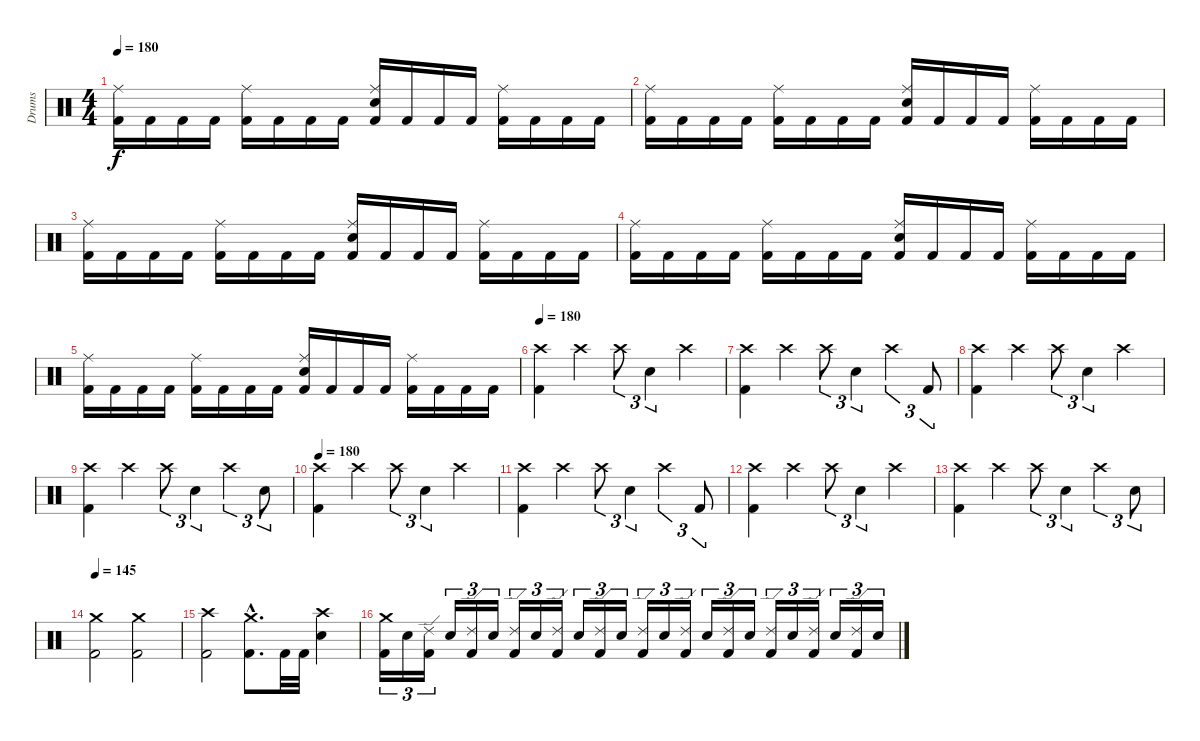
\track ("Drums" "Drums") {instrument percussion}
\staff {score}
\articulation defaults
\ts (4 4)
\tempo 180
\clef neutral
\ks c
("Kick (hit) 2" "Ride (middle)").16{dy f} "Kick (hit) 2".16 "Kick (hit) 2".16 "Kick (hit) 2".16 ("Kick (hit) 2" "Ride (middle)").16 "Kick (hit) 2".16 "Kick (hit) 2".16 "Kick (hit) 2".16 ("Kick (hit) 2" "Electric Snare (hit)" "Ride (middle)").16 "Kick (hit) 2".16 "Kick (hit) 2".16 "Kick (hit) 2".16 ("Kick (hit) 2" "Ride (middle)").16 "Kick (hit) 2".16 "Kick (hit) 2".16 "Kick (hit) 2".16 |
("Kick (hit) 2" "Ride (middle)").16 "Kick (hit) 2".16 "Kick (hit) 2".16 "Kick (hit) 2".16 ("Kick (hit) 2" "Ride (middle)").16 "Kick (hit) 2".16 "Kick (hit) 2".16 "Kick (hit) 2".16 ("Kick (hit) 2" "Electric Snare (hit)" "Ride (middle)").16 "Kick (hit) 2".16 "Kick (hit) 2".16 "Kick (hit) 2".16 ("Kick (hit) 2" "Ride (middle)").16 "Kick (hit) 2".16 "Kick (hit) 2".16 "Kick (hit) 2".16 |
("Kick (hit) 2" "Ride (middle)").16 "Kick (hit) 2".16 "Kick (hit) 2".16 "Kick (hit) 2".16 ("Kick (hit) 2" "Ride (middle)").16 "Kick (hit) 2".16 "Kick (hit) 2".16 "Kick (hit) 2".16 ("Kick (hit) 2" "Electric Snare (hit)" "Ride (middle)").16 "Kick (hit) 2".16 "Kick (hit) 2".16 "Kick (hit) 2".16 ("Kick (hit) 2" "Ride (middle)").16 "Kick (hit) 2".16 "Kick (hit) 2".16 "Kick (hit) 2".16 |
("Kick (hit) 2" "Ride (middle)").16 "Kick (hit) 2".16 "Kick (hit) 2".16 "Kick (hit) 2".16 ("Kick (hit) 2" "Ride (middle)").16 "Kick (hit) 2".16 "Kick (hit) 2".16 "Kick (hit) 2".16 ("Kick (hit) 2" "Electric Snare (hit)" "Ride (middle)").16 "Kick (hit) 2".16 "Kick (hit) 2".16 "Kick (hit) 2".16 ("Kick (hit) 2" "Ride (middle)").16 "Kick (hit) 2".16 "Kick (hit) 2".16 "Kick (hit) 2".16 |
("Kick (hit) 2" "Ride (middle)").16 "Kick (hit) 2".16 "Kick (hit) 2".16 "Kick (hit) 2".16 ("Kick (hit) 2" "Ride (middle)").16 "Kick (hit) 2".16 "Kick (hit) 2".16 "Kick (hit) 2".16 ("Kick (hit) 2" "Electric Snare (hit)" "Ride (middle)").16 "Kick (hit) 2".16 "Kick (hit) 2".16 "Kick (hit) 2".16 ("Kick (hit) 2" "Ride (middle)").16 "Kick (hit) 2".16 "Kick (hit) 2".16 "Kick (hit) 2".16 |
\tempo 180
("Kick (hit) 2" "Crash high (hit)").4 "Crash high (hit)".4 "Crash high (hit)".8{tu (3 2)} "Electric Snare (hit)".4{tu (3 2)} "Crash high (hit)".4 |
("Kick (hit) 2" "Crash high (hit)").4 "Crash high (hit)".4 "Crash high (hit)".8{tu (3 2)} "Electric Snare (hit)".4{tu (3 2)} "Crash high (hit)".4{tu (3 2)} "Kick (hit) 2".8{tu (3 2)} |
("Kick (hit) 2" "Crash high (hit)").4 "Crash high (hit)".4 "Crash high (hit)".8{tu (3 2)} "Electric Snare (hit)".4{tu (3 2)} "Crash high (hit)".4 |
("Kick (hit) 2" "Crash high (hit)").4 "Crash high (hit)".4 "Crash high (hit)".8{tu (3 2)} "Electric Snare (hit)".4{tu (3 2)} "Crash high (hit)".4{tu (3 2)} "Electric Snare (hit)".8{tu (3 2)} |
\tempo 180
("Kick (hit) 2" "Crash high (hit)").4 "Crash high (hit)".4 "Crash high (hit)".8{tu (3 2)} "Electric Snare (hit)".4{tu (3 2)} "Crash high (hit)".4 |
("Kick (hit) 2" "Crash high (hit)").4 "Crash high (hit)".4 "Crash high (hit)".8{tu (3 2)} "Electric Snare (hit)".4{tu (3 2)} "Crash high (hit)".4{tu (3 2)} "Kick (hit) 2".8{tu (3 2)} |
("Kick (hit) 2" "Crash high (hit)").4 "Crash high (hit)".4 "Crash high (hit)".8{tu (3 2)} "Electric Snare (hit)".4{tu (3 2)} "Crash high (hit)".4 |
("Kick (hit) 2" "Crash high (hit)").4 "Crash high (hit)".4 "Crash high (hit)".8{tu (3 2)} "Electric Snare (hit)".4{tu (3 2)} "Crash high (hit)".4{tu (3 2)} "Electric Snare (hit)".8{tu (3 2)} |
\tempo 145
("Kick (hit) 2" "Crash medium (hit)").2 ("Kick (hit) 2" "Crash medium (hit)").2 |
("Kick (hit) 2" "Crash high (hit)").2 ("Kick (hit) 2"{hac} "Crash medium (hit)"{hac}).8{d} "Kick (hit) 2".32 "Kick (hit) 2".32 ("Electric Snare (hit)" "Crash high (hit)").4 |
("Kick (hit) 2" "Crash medium (hit)").16{tu (3 2)} "Snare (hit) 2".16{tu (3 2)} ("Kick (hit) 2" "Ride (edge) 2").16{tu (3 2)} "Snare (hit) 2".16{tu (3 2)} ("Kick (hit) 2" "Ride (edge) 2").16{tu (3 2)} "Snare (hit) 2".16{tu (3 2)} ("Kick (hit) 2" "Ride (edge) 2").16{tu (3 2)} "Snare (hit) 2".16{tu (3 2)} ("Kick (hit) 2" "Ride (edge) 2").16{tu (3 2)} "Snare (hit) 2".16{tu (3 2)} ("Kick (hit) 2" "Ride (edge) 2").16{tu (3 2)} "Snare (hit) 2".16{tu (3 2)} ("Kick (hit) 2" "Ride (edge) 2").16{tu (3 2)} "Snare (hit) 2".16{tu (3 2)} ("Kick (hit) 2" "Ride (edge) 2").16{tu (3 2)} "Snare (hit) 2".16{tu (3 2)} ("Kick (hit) 2" "Ride (edge) 2").16{tu (3 2)} "Snare (hit) 2".16{tu (3 2)} ("Kick (hit) 2" "Ride (edge) 2").16{tu (3 2)} "Snare (hit) 2".16{tu (3 2)} ("Kick (hit) 2" "Ride (edge) 2").16{tu (3 2)} "Snare (hit) 2".16{tu (3 2)} ("Kick (hit) 2" "Ride (edge) 2").16{tu (3 2)} "Snare (hit) 2".16{tu (3 2)}
